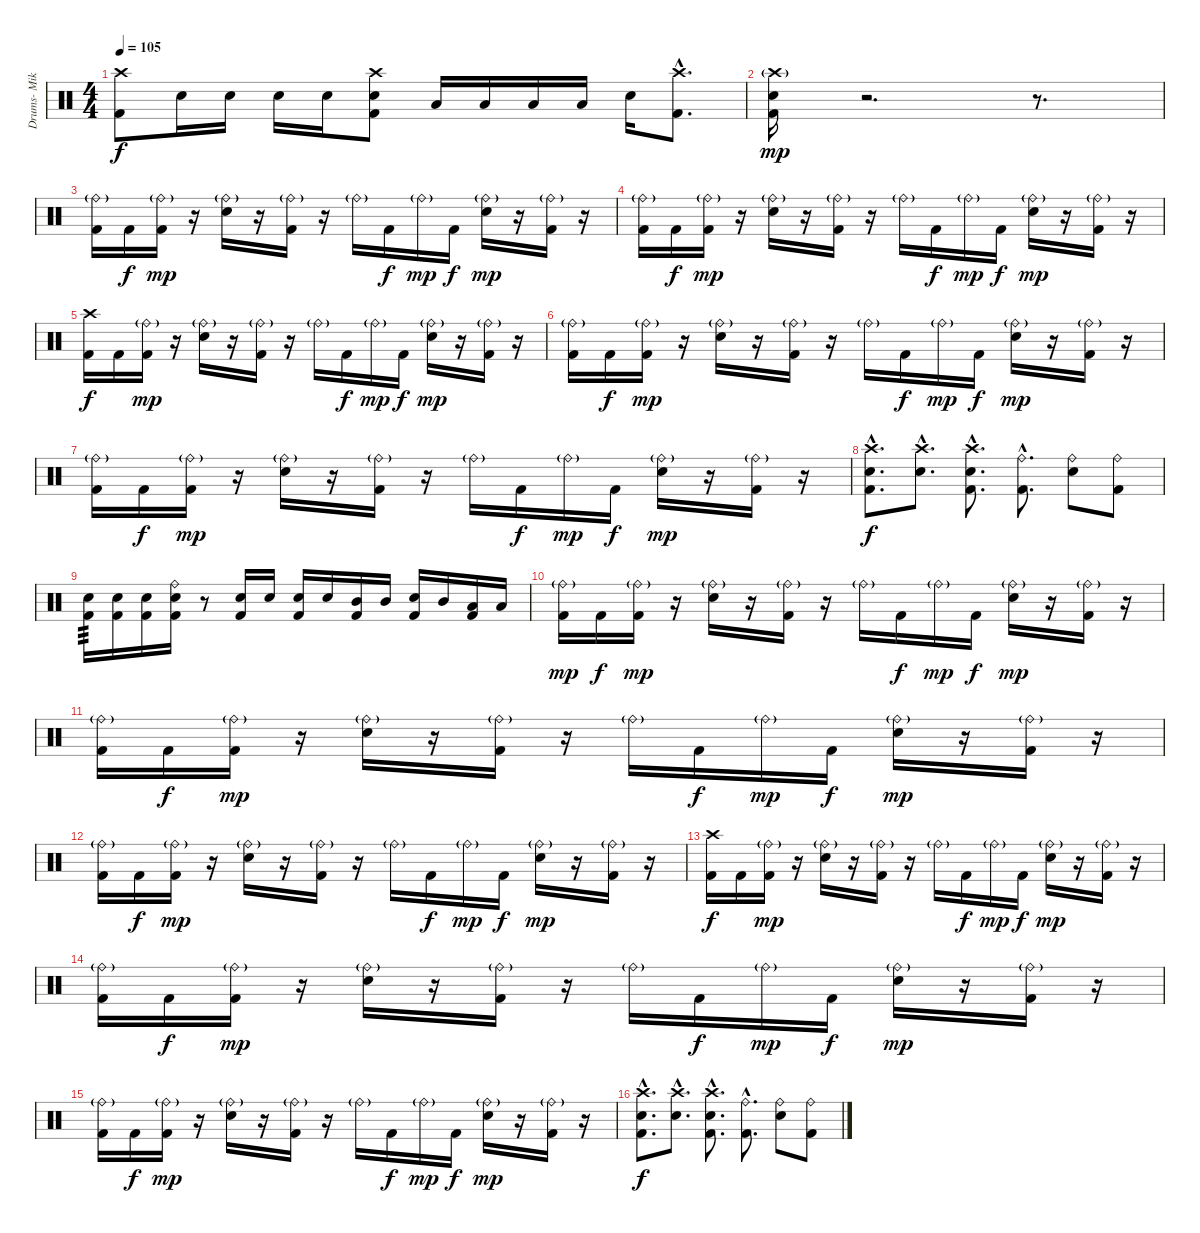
\track ("Drums- Mike " "Drums- Mik") {instrument percussion}
\staff {score}
\articulation defaults
\ts (4 4)
\tempo 105
\clef neutral
\ks c
("Crash high (hit)" "Kick (hit) 2").8{dy f} "Snare (hit) 2".16 "Snare (hit) 2".16 "Snare (hit) 2".16 "Snare (hit) 2".16 ("Crash high (hit)" "Snare (hit) 2" "Kick (hit) 2").8 "Low Tom (hit)".16 "Low Tom (hit)".16 "Low Tom (hit)".16 "Low Tom (hit)".16 "Snare (hit) 2".16 ("Crash high (hit)"{hac} "Kick (hit) 2"{hac}).8{d} |
("Crash high (hit)"{g} "Snare (hit) 2" "Kick (hit) 2").16{dy mp} r.2{d} r.8{d} |
("Ride (bell)"{g} "Kick (hit) 2").16 "Kick (hit) 2".16{dy f} ("Ride (bell)"{g} "Kick (hit) 2").16{dy mp} r.16 ("Ride (bell)"{g} "Snare (hit) 2").16 r.16 ("Ride (bell)"{g} "Kick (hit) 2").16 r.16 "Ride (bell)"{g}.16 "Kick (hit) 2".16{dy f} "Ride (bell)"{g}.16{dy mp} "Kick (hit) 2".16{dy f} ("Ride (bell)"{g} "Snare (hit) 2").16{dy mp} r.16 ("Ride (bell)"{g} "Kick (hit) 2").16 r.16 |
("Ride (bell)"{g} "Kick (hit) 2").16 "Kick (hit) 2".16{dy f} ("Ride (bell)"{g} "Kick (hit) 2").16{dy mp} r.16 ("Ride (bell)"{g} "Snare (hit) 2").16 r.16 ("Ride (bell)"{g} "Kick (hit) 2").16 r.16 "Ride (bell)"{g}.16 "Kick (hit) 2".16{dy f} "Ride (bell)"{g}.16{dy mp} "Kick (hit) 2".16{dy f} ("Ride (bell)"{g} "Snare (hit) 2").16{dy mp} r.16 ("Ride (bell)"{g} "Kick (hit) 2").16 r.16 |
("Crash high (hit)" "Kick (hit) 2").16{dy f} "Kick (hit) 2".16 ("Ride (bell)"{g} "Kick (hit) 2").16{dy mp} r.16 ("Ride (bell)"{g} "Snare (hit) 2").16 r.16 ("Ride (bell)"{g} "Kick (hit) 2").16 r.16 "Ride (bell)"{g}.16 "Kick (hit) 2".16{dy f} "Ride (bell)"{g}.16{dy mp} "Kick (hit) 2".16{dy f} ("Ride (bell)"{g} "Snare (hit) 2").16{dy mp} r.16 ("Ride (bell)"{g} "Kick (hit) 2").16 r.16 |
("Ride (bell)"{g} "Kick (hit) 2").16 "Kick (hit) 2".16{dy f} ("Ride (bell)"{g} "Kick (hit) 2").16{dy mp} r.16 ("Ride (bell)"{g} "Snare (hit) 2").16 r.16 ("Ride (bell)"{g} "Kick (hit) 2").16 r.16 "Ride (bell)"{g}.16 "Kick (hit) 2".16{dy f} "Ride (bell)"{g}.16{dy mp} "Kick (hit) 2".16{dy f} ("Ride (bell)"{g} "Snare (hit) 2").16{dy mp} r.16 ("Ride (bell)"{g} "Kick (hit) 2").16 r.16 |
("Ride (bell)"{g} "Kick (hit) 2").16 "Kick (hit) 2".16{dy f} ("Ride (bell)"{g} "Kick (hit) 2").16{dy mp} r.16 ("Ride (bell)"{g} "Snare (hit) 2").16 r.16 ("Ride (bell)"{g} "Kick (hit) 2").16 r.16 "Ride (bell)"{g}.16 "Kick (hit) 2".16{dy f} "Ride (bell)"{g}.16{dy mp} "Kick (hit) 2".16{dy f} ("Ride (bell)"{g} "Snare (hit) 2").16{dy mp} r.16 ("Ride (bell)"{g} "Kick (hit) 2").16 r.16 |
("Crash high (hit)"{hac} "Snare (hit) 2"{hac} "Kick (hit) 2"{hac}).8{d dy f} ("Crash high (hit)"{hac} "Snare (hit) 2"{hac}).8{d} ("Crash high (hit)"{hac} "Snare (hit) 2"{hac} "Kick (hit) 2"{hac}).8{d} ("Ride (bell)"{hac} "Kick (hit) 2"{hac}).8{d} ("Ride (bell)" "Snare (hit) 2").8 ("Ride (bell)" "Kick (hit) 2").8 |
("Snare (hit) 2" "Kick (hit) 2").16{tp 3} ("Snare (hit) 2" "Kick (hit) 2").16 ("Snare (hit) 2" "Kick (hit) 2").16 ("Ride (bell)" "Snare (hit) 2" "Kick (hit) 2").16 r.8 ("Snare (hit) 2" "Kick (hit) 2").16 "Snare (hit) 2".16 ("Snare (hit) 2" "Kick (hit) 2").16 "Snare (hit) 2".16 ("Mid Tom (hit)" "Kick (hit) 2").16 "Mid Tom (hit)".16 ("Snare (hit) 2" "Kick (hit) 2").16 "Mid Tom (hit)".16 ("Low Tom (hit)" "Kick (hit) 2").16 "Low Floor Tom (hit)".16 |
("Ride (bell)"{g} "Kick (hit) 2").16{dy mp} "Kick (hit) 2".16{dy f} ("Ride (bell)"{g} "Kick (hit) 2").16{dy mp} r.16 ("Ride (bell)"{g} "Snare (hit) 2").16 r.16 ("Ride (bell)"{g} "Kick (hit) 2").16 r.16 "Ride (bell)"{g}.16 "Kick (hit) 2".16{dy f} "Ride (bell)"{g}.16{dy mp} "Kick (hit) 2".16{dy f} ("Ride (bell)"{g} "Snare (hit) 2").16{dy mp} r.16 ("Ride (bell)"{g} "Kick (hit) 2").16 r.16 |
("Ride (bell)"{g} "Kick (hit) 2").16 "Kick (hit) 2".16{dy f} ("Ride (bell)"{g} "Kick (hit) 2").16{dy mp} r.16 ("Ride (bell)"{g} "Snare (hit) 2").16 r.16 ("Ride (bell)"{g} "Kick (hit) 2").16 r.16 "Ride (bell)"{g}.16 "Kick (hit) 2".16{dy f} "Ride (bell)"{g}.16{dy mp} "Kick (hit) 2".16{dy f} ("Ride (bell)"{g} "Snare (hit) 2").16{dy mp} r.16 ("Ride (bell)"{g} "Kick (hit) 2").16 r.16 |
("Ride (bell)"{g} "Kick (hit) 2").16 "Kick (hit) 2".16{dy f} ("Ride (bell)"{g} "Kick (hit) 2").16{dy mp} r.16 ("Ride (bell)"{g} "Snare (hit) 2").16 r.16 ("Ride (bell)"{g} "Kick (hit) 2").16 r.16 "Ride (bell)"{g}.16 "Kick (hit) 2".16{dy f} "Ride (bell)"{g}.16{dy mp} "Kick (hit) 2".16{dy f} ("Ride (bell)"{g} "Snare (hit) 2").16{dy mp} r.16 ("Ride (bell)"{g} "Kick (hit) 2").16 r.16 |
("Crash high (hit)" "Kick (hit) 2").16{dy f} "Kick (hit) 2".16 ("Ride (bell)"{g} "Kick (hit) 2").16{dy mp} r.16 ("Ride (bell)"{g} "Snare (hit) 2").16 r.16 ("Ride (bell)"{g} "Kick (hit) 2").16 r.16 "Ride (bell)"{g}.16 "Kick (hit) 2".16{dy f} "Ride (bell)"{g}.16{dy mp} "Kick (hit) 2".16{dy f} ("Ride (bell)"{g} "Snare (hit) 2").16{dy mp} r.16 ("Ride (bell)"{g} "Kick (hit) 2").16 r.16 |
("Ride (bell)"{g} "Kick (hit) 2").16 "Kick (hit) 2".16{dy f} ("Ride (bell)"{g} "Kick (hit) 2").16{dy mp} r.16 ("Ride (bell)"{g} "Snare (hit) 2").16 r.16 ("Ride (bell)"{g} "Kick (hit) 2").16 r.16 "Ride (bell)"{g}.16 "Kick (hit) 2".16{dy f} "Ride (bell)"{g}.16{dy mp} "Kick (hit) 2".16{dy f} ("Ride (bell)"{g} "Snare (hit) 2").16{dy mp} r.16 ("Ride (bell)"{g} "Kick (hit) 2").16 r.16 |
("Ride (bell)"{g} "Kick (hit) 2").16 "Kick (hit) 2".16{dy f} ("Ride (bell)"{g} "Kick (hit) 2").16{dy mp} r.16 ("Ride (bell)"{g} "Snare (hit) 2").16 r.16 ("Ride (bell)"{g} "Kick (hit) 2").16 r.16 "Ride (bell)"{g}.16 "Kick (hit) 2".16{dy f} "Ride (bell)"{g}.16{dy mp} "Kick (hit) 2".16{dy f} ("Ride (bell)"{g} "Snare (hit) 2").16{dy mp} r.16 ("Ride (bell)"{g} "Kick (hit) 2").16 r.16 |
("Crash high (hit)"{hac} "Snare (hit) 2"{hac} "Kick (hit) 2"{hac}).8{d dy f} ("Crash high (hit)"{hac} "Snare (hit) 2"{hac}).8{d} ("Crash high (hit)"{hac} "Snare (hit) 2"{hac} "Kick (hit) 2"{hac}).8{d} ("Ride (bell)"{hac} "Kick (hit) 2"{hac}).8{d} ("Ride (bell)" "Snare (hit) 2").8 ("Ride (bell)" "Kick (hit) 2").8
